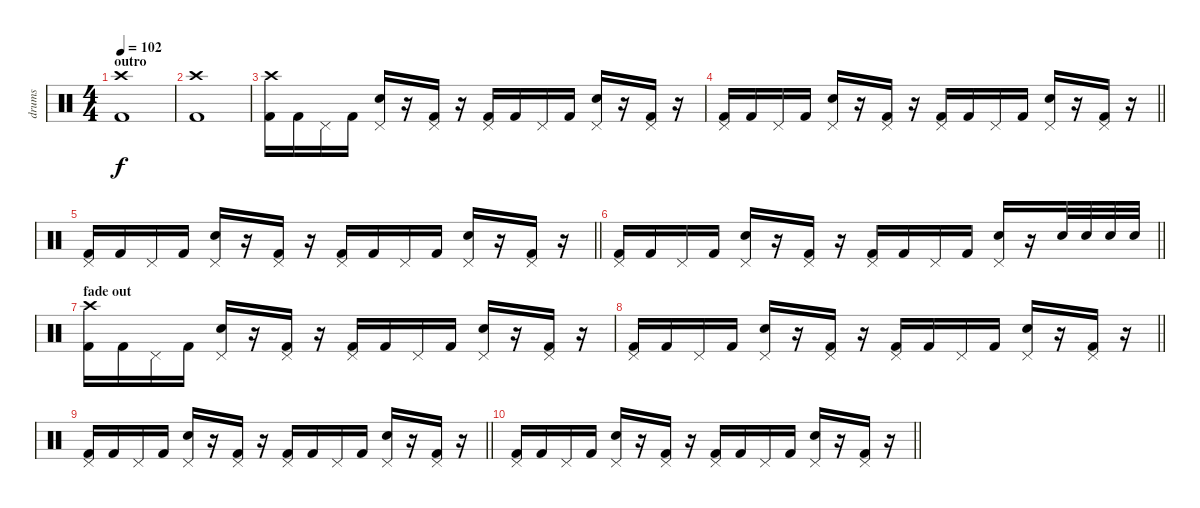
\track ("drums" "drums") {instrument percussion}
\staff {score}
\articulation defaults
\ts (4 4)
\section ("" "outro")
\tempo 102
\clef neutral
\ks c
("Kick (hit) 2" "Crash high (hit)").1{dy f} |
("Kick (hit) 2" "Crash high (hit)").1 |
("Kick (hit) 2" "Crash high (hit)").16 "Kick (hit) 2".16 "Pedal Hi-Hat (hit)".16 "Kick (hit) 2".16 ("Electric Snare (hit)" "Pedal Hi-Hat (hit)").16 r.16 ("Kick (hit) 2" "Pedal Hi-Hat (hit)").16 r.16 ("Kick (hit) 2" "Pedal Hi-Hat (hit)").16 "Kick (hit) 2".16 "Pedal Hi-Hat (hit)".16 "Kick (hit) 2".16 ("Electric Snare (hit)" "Pedal Hi-Hat (hit)").16 r.16 ("Kick (hit) 2" "Pedal Hi-Hat (hit)").16 r.16 |
\barLineRight lightlight
("Kick (hit) 2" "Pedal Hi-Hat (hit)").16 "Kick (hit) 2".16 "Pedal Hi-Hat (hit)".16 "Kick (hit) 2".16 ("Electric Snare (hit)" "Pedal Hi-Hat (hit)").16 r.16 ("Kick (hit) 2" "Pedal Hi-Hat (hit)").16 r.16 ("Kick (hit) 2" "Pedal Hi-Hat (hit)").16 "Kick (hit) 2".16 "Pedal Hi-Hat (hit)".16 "Kick (hit) 2".16 ("Electric Snare (hit)" "Pedal Hi-Hat (hit)").16 r.16 ("Kick (hit) 2" "Pedal Hi-Hat (hit)").16 r.16 |
\barLineRight lightlight
("Kick (hit) 2" "Pedal Hi-Hat (hit)").16 "Kick (hit) 2".16 "Pedal Hi-Hat (hit)".16 "Kick (hit) 2".16 ("Electric Snare (hit)" "Pedal Hi-Hat (hit)").16 r.16 ("Kick (hit) 2" "Pedal Hi-Hat (hit)").16 r.16 ("Kick (hit) 2" "Pedal Hi-Hat (hit)").16 "Kick (hit) 2".16 "Pedal Hi-Hat (hit)".16 "Kick (hit) 2".16 ("Electric Snare (hit)" "Pedal Hi-Hat (hit)").16 r.16 ("Kick (hit) 2" "Pedal Hi-Hat (hit)").16 r.16 |
\barLineRight lightlight
("Kick (hit) 2" "Pedal Hi-Hat (hit)").16 "Kick (hit) 2".16 "Pedal Hi-Hat (hit)".16 "Kick (hit) 2".16 ("Electric Snare (hit)" "Pedal Hi-Hat (hit)").16 r.16 ("Kick (hit) 2" "Pedal Hi-Hat (hit)").16 r.16 ("Kick (hit) 2" "Pedal Hi-Hat (hit)").16 "Kick (hit) 2".16 "Pedal Hi-Hat (hit)".16 "Kick (hit) 2".16 ("Electric Snare (hit)" "Pedal Hi-Hat (hit)").16 r.16 "Electric Snare (hit)".32 "Electric Snare (hit)".32 "Electric Snare (hit)".32 "Electric Snare (hit)".32 |
\section ("" "fade out")
("Kick (hit) 2" "Crash high (hit)").16{volume 0} "Kick (hit) 2".16 "Pedal Hi-Hat (hit)".16 "Kick (hit) 2".16 ("Electric Snare (hit)" "Pedal Hi-Hat (hit)").16 r.16 ("Kick (hit) 2" "Pedal Hi-Hat (hit)").16 r.16 ("Kick (hit) 2" "Pedal Hi-Hat (hit)").16 "Kick (hit) 2".16 "Pedal Hi-Hat (hit)".16 "Kick (hit) 2".16 ("Electric Snare (hit)" "Pedal Hi-Hat (hit)").16 r.16 ("Kick (hit) 2" "Pedal Hi-Hat (hit)").16 r.16 |
\barLineRight lightlight
("Kick (hit) 2" "Pedal Hi-Hat (hit)").16 "Kick (hit) 2".16 "Pedal Hi-Hat (hit)".16 "Kick (hit) 2".16 ("Electric Snare (hit)" "Pedal Hi-Hat (hit)").16 r.16 ("Kick (hit) 2" "Pedal Hi-Hat (hit)").16 r.16 ("Kick (hit) 2" "Pedal Hi-Hat (hit)").16 "Kick (hit) 2".16 "Pedal Hi-Hat (hit)".16 "Kick (hit) 2".16 ("Electric Snare (hit)" "Pedal Hi-Hat (hit)").16 r.16 ("Kick (hit) 2" "Pedal Hi-Hat (hit)").16 r.16 |
\barLineRight lightlight
("Kick (hit) 2" "Pedal Hi-Hat (hit)").16 "Kick (hit) 2".16 "Pedal Hi-Hat (hit)".16 "Kick (hit) 2".16 ("Electric Snare (hit)" "Pedal Hi-Hat (hit)").16 r.16 ("Kick (hit) 2" "Pedal Hi-Hat (hit)").16 r.16 ("Kick (hit) 2" "Pedal Hi-Hat (hit)").16 "Kick (hit) 2".16 "Pedal Hi-Hat (hit)".16 "Kick (hit) 2".16 ("Electric Snare (hit)" "Pedal Hi-Hat (hit)").16 r.16 ("Kick (hit) 2" "Pedal Hi-Hat (hit)").16 r.16 |
\barLineRight lightlight
("Kick (hit) 2" "Pedal Hi-Hat (hit)").16 "Kick (hit) 2".16 "Pedal Hi-Hat (hit)".16 "Kick (hit) 2".16 ("Electric Snare (hit)" "Pedal Hi-Hat (hit)").16 r.16 ("Kick (hit) 2" "Pedal Hi-Hat (hit)").16 r.16 ("Kick (hit) 2" "Pedal Hi-Hat (hit)").16 "Kick (hit) 2".16 "Pedal Hi-Hat (hit)".16 "Kick (hit) 2".16 ("Electric Snare (hit)" "Pedal Hi-Hat (hit)").16 r.16 ("Kick (hit) 2" "Pedal Hi-Hat (hit)").16 r.16
